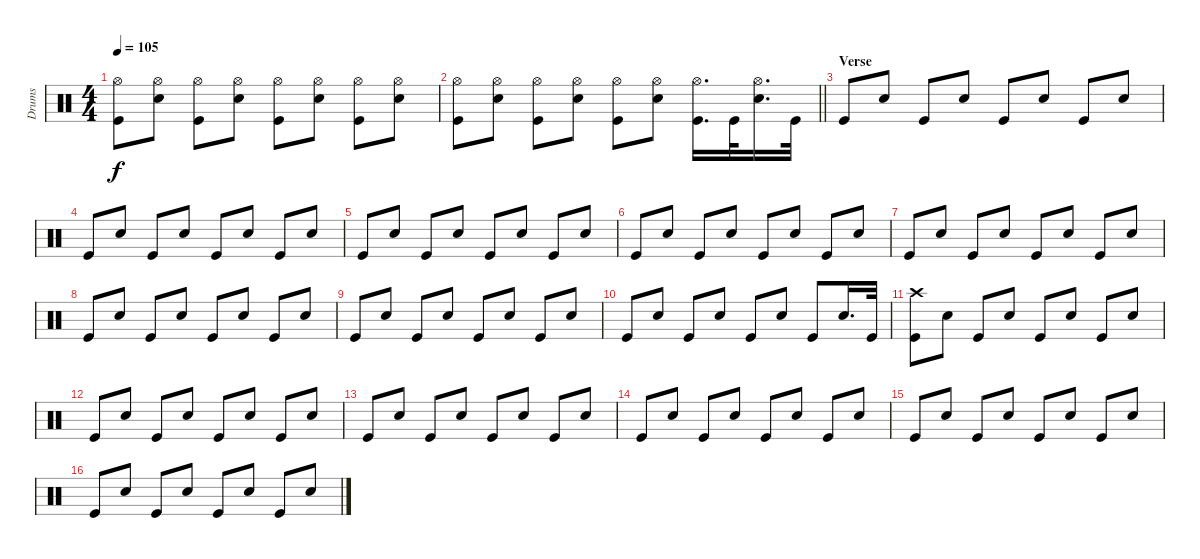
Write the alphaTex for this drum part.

\track ("Drums" "Drums") {instrument percussion}
\staff
\articulation defaults
\ts (4 4)
\tempo 105
\clef neutral
\ks c
("Hi-Hat (open)" "Kick (hit)").8{dy f} ("Hi-Hat (open)" "Snare (hit) 2").8 ("Hi-Hat (open)" "Kick (hit)").8 ("Hi-Hat (open)" "Snare (hit) 2").8 ("Hi-Hat (open)" "Kick (hit)").8 ("Hi-Hat (open)" "Snare (hit) 2").8 ("Hi-Hat (open)" "Kick (hit)").8 ("Hi-Hat (open)" "Snare (hit) 2").8 |
\barLineRight lightlight
("Hi-Hat (open)" "Kick (hit)").8 ("Hi-Hat (open)" "Snare (hit) 2").8 ("Hi-Hat (open)" "Kick (hit)").8 ("Hi-Hat (open)" "Snare (hit) 2").8 ("Hi-Hat (open)" "Kick (hit)").8 ("Hi-Hat (open)" "Snare (hit) 2").8 ("Hi-Hat (open)" "Kick (hit)").16{d} "Kick (hit)".32 ("Hi-Hat (open)" "Snare (hit) 2").16{d} "Kick (hit)".32 |
\section ("" "Verse")
"Kick (hit)".8 "Snare (hit) 2".8 "Kick (hit)".8 "Snare (hit) 2".8 "Kick (hit)".8 "Snare (hit) 2".8 "Kick (hit)".8 "Snare (hit) 2".8 |
"Kick (hit)".8 "Snare (hit) 2".8 "Kick (hit)".8 "Snare (hit) 2".8 "Kick (hit)".8 "Snare (hit) 2".8 "Kick (hit)".8 "Snare (hit) 2".8 |
"Kick (hit)".8 "Snare (hit) 2".8 "Kick (hit)".8 "Snare (hit) 2".8 "Kick (hit)".8 "Snare (hit) 2".8 "Kick (hit)".8 "Snare (hit) 2".8 |
"Kick (hit)".8 "Snare (hit) 2".8 "Kick (hit)".8 "Snare (hit) 2".8 "Kick (hit)".8 "Snare (hit) 2".8 "Kick (hit)".8 "Snare (hit) 2".8 |
"Kick (hit)".8 "Snare (hit) 2".8 "Kick (hit)".8 "Snare (hit) 2".8 "Kick (hit)".8 "Snare (hit) 2".8 "Kick (hit)".8 "Snare (hit) 2".8 |
"Kick (hit)".8 "Snare (hit) 2".8 "Kick (hit)".8 "Snare (hit) 2".8 "Kick (hit)".8 "Snare (hit) 2".8 "Kick (hit)".8 "Snare (hit) 2".8 |
"Kick (hit)".8 "Snare (hit) 2".8 "Kick (hit)".8 "Snare (hit) 2".8 "Kick (hit)".8 "Snare (hit) 2".8 "Kick (hit)".8 "Snare (hit) 2".8 |
"Kick (hit)".8 "Snare (hit) 2".8 "Kick (hit)".8 "Snare (hit) 2".8 "Kick (hit)".8 "Snare (hit) 2".8 "Kick (hit)".8 "Snare (hit) 2".16{d} "Kick (hit)".32 |
("Crash high (hit)" "Kick (hit)").8 "Snare (hit) 2".8 "Kick (hit)".8 "Snare (hit) 2".8 "Kick (hit)".8 "Snare (hit) 2".8 "Kick (hit)".8 "Snare (hit) 2".8 |
"Kick (hit)".8 "Snare (hit) 2".8 "Kick (hit)".8 "Snare (hit) 2".8 "Kick (hit)".8 "Snare (hit) 2".8 "Kick (hit)".8 "Snare (hit) 2".8 |
"Kick (hit)".8 "Snare (hit) 2".8 "Kick (hit)".8 "Snare (hit) 2".8 "Kick (hit)".8 "Snare (hit) 2".8 "Kick (hit)".8 "Snare (hit) 2".8 |
"Kick (hit)".8 "Snare (hit) 2".8 "Kick (hit)".8 "Snare (hit) 2".8 "Kick (hit)".8 "Snare (hit) 2".8 "Kick (hit)".8 "Snare (hit) 2".8 |
"Kick (hit)".8 "Snare (hit) 2".8 "Kick (hit)".8 "Snare (hit) 2".8 "Kick (hit)".8 "Snare (hit) 2".8 "Kick (hit)".8 "Snare (hit) 2".8 |
"Kick (hit)".8 "Snare (hit) 2".8 "Kick (hit)".8 "Snare (hit) 2".8 "Kick (hit)".8 "Snare (hit) 2".8 "Kick (hit)".8 "Snare (hit) 2".8
